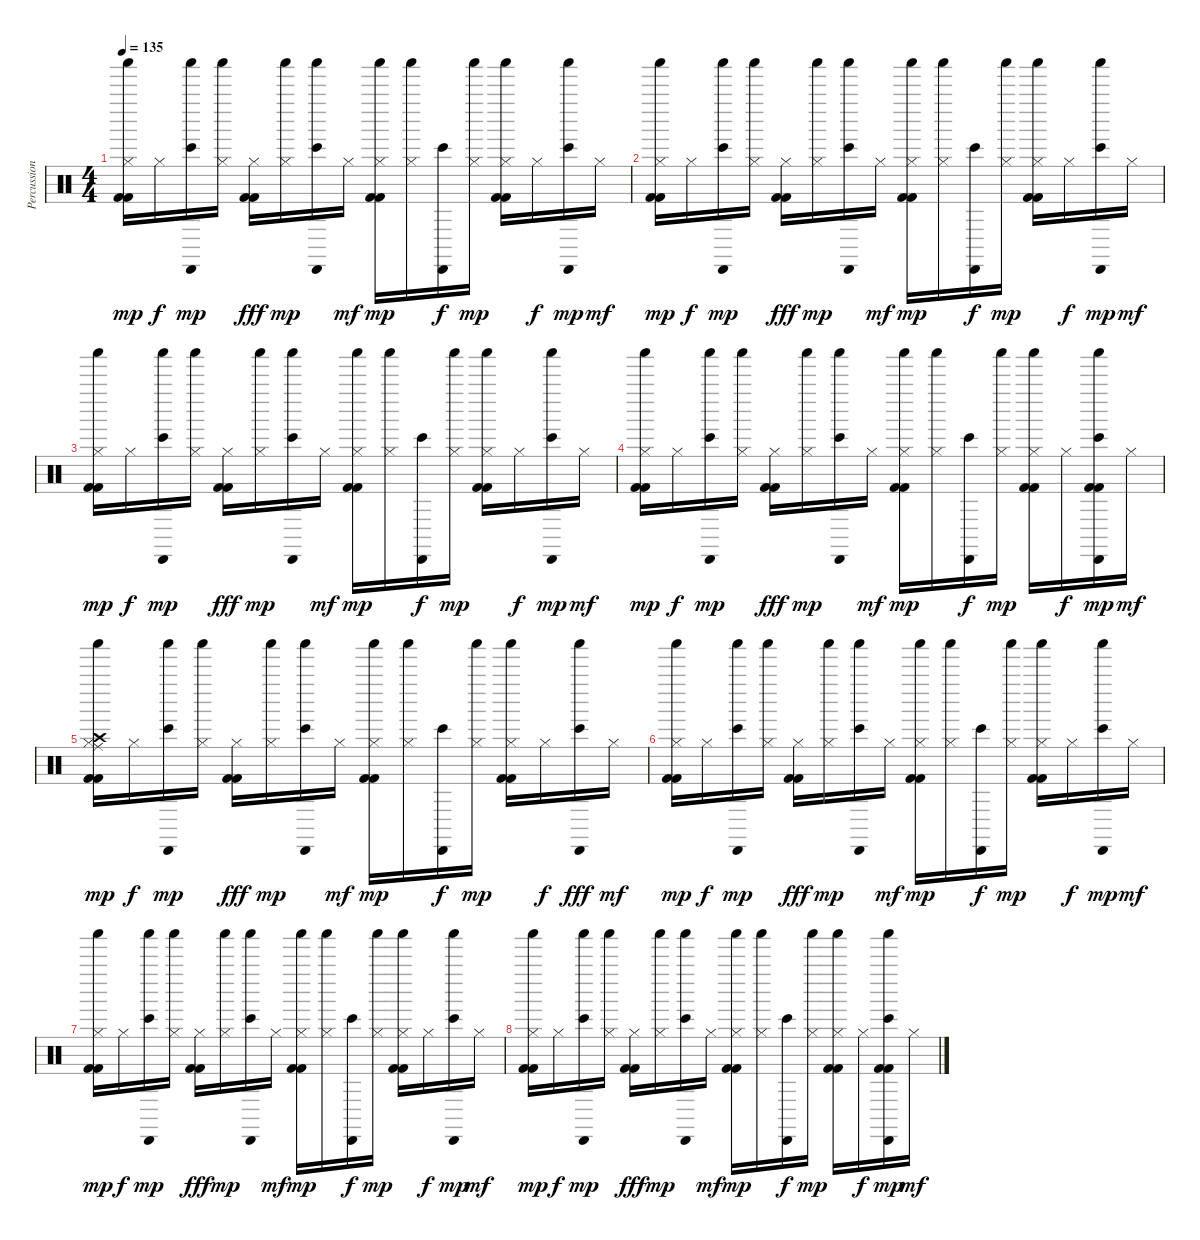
\track ("Percussion" "Percussion") {instrument percussion}
\staff {score}
\articulation defaults
\ts (4 4)
\tempo 135
\clef neutral
\ks c
("Hi-Hat (closed)" "Kick (hit) 2" "Kick (hit) 2" "Shaker (hit)").16{dy mp} "Hi-Hat (closed)".16{dy f} ("Cabasa (hit)" "Bongo High (hit)" "Shaker (hit)").16{dy mp} ("Hi-Hat (closed)" "Shaker (hit)").16 ("Hi-Hat (closed)" "Kick (hit) 2" "Kick (hit) 2").16{dy fff} ("Hi-Hat (closed)" "Shaker (hit)").16{dy mp} ("Cabasa (hit)" "Bongo High (hit)" "Shaker (hit)").16 "Hi-Hat (closed)".16{dy mf} ("Hi-Hat (closed)" "Kick (hit) 2" "Kick (hit) 2" "Shaker (hit)").16{dy mp} ("Hi-Hat (closed)" "Shaker (hit)").16 ("Cabasa (hit)" "Bongo High (hit)").16{dy f} ("Hi-Hat (closed)" "Shaker (hit)").16{dy mp} ("Hi-Hat (closed)" "Kick (hit) 2" "Kick (hit) 2" "Shaker (hit)").16 "Hi-Hat (closed)".16{dy f} ("Cabasa (hit)" "Bongo High (hit)" "Shaker (hit)").16{dy mp} "Hi-Hat (closed)".16{dy mf} |
("Hi-Hat (closed)" "Kick (hit) 2" "Kick (hit) 2" "Shaker (hit)").16{dy mp} "Hi-Hat (closed)".16{dy f} ("Cabasa (hit)" "Bongo High (hit)" "Shaker (hit)").16{dy mp} ("Hi-Hat (closed)" "Shaker (hit)").16 ("Hi-Hat (closed)" "Kick (hit) 2" "Kick (hit) 2").16{dy fff} ("Hi-Hat (closed)" "Shaker (hit)").16{dy mp} ("Cabasa (hit)" "Bongo High (hit)" "Shaker (hit)").16 "Hi-Hat (closed)".16{dy mf} ("Hi-Hat (closed)" "Kick (hit) 2" "Kick (hit) 2" "Shaker (hit)").16{dy mp} ("Hi-Hat (closed)" "Shaker (hit)").16 ("Cabasa (hit)" "Bongo High (hit)").16{dy f} ("Hi-Hat (closed)" "Shaker (hit)").16{dy mp} ("Hi-Hat (closed)" "Kick (hit) 2" "Kick (hit) 2" "Shaker (hit)").16 "Hi-Hat (closed)".16{dy f} ("Cabasa (hit)" "Bongo High (hit)" "Shaker (hit)").16{dy mp} "Hi-Hat (closed)".16{dy mf} |
("Hi-Hat (closed)" "Kick (hit) 2" "Kick (hit) 2" "Shaker (hit)").16{dy mp} "Hi-Hat (closed)".16{dy f} ("Cabasa (hit)" "Bongo High (hit)" "Shaker (hit)").16{dy mp} ("Hi-Hat (closed)" "Shaker (hit)").16 ("Hi-Hat (closed)" "Kick (hit) 2" "Kick (hit) 2").16{dy fff} ("Hi-Hat (closed)" "Shaker (hit)").16{dy mp} ("Cabasa (hit)" "Bongo High (hit)" "Shaker (hit)").16 "Hi-Hat (closed)".16{dy mf} ("Hi-Hat (closed)" "Kick (hit) 2" "Kick (hit) 2" "Shaker (hit)").16{dy mp} ("Hi-Hat (closed)" "Shaker (hit)").16 ("Cabasa (hit)" "Bongo High (hit)").16{dy f} ("Hi-Hat (closed)" "Shaker (hit)").16{dy mp} ("Hi-Hat (closed)" "Kick (hit) 2" "Kick (hit) 2" "Shaker (hit)").16 "Hi-Hat (closed)".16{dy f} ("Cabasa (hit)" "Bongo High (hit)" "Shaker (hit)").16{dy mp} "Hi-Hat (closed)".16{dy mf} |
("Hi-Hat (closed)" "Kick (hit) 2" "Kick (hit) 2" "Shaker (hit)").16{dy mp} "Hi-Hat (closed)".16{dy f} ("Cabasa (hit)" "Bongo High (hit)" "Shaker (hit)").16{dy mp} ("Hi-Hat (closed)" "Shaker (hit)").16 ("Hi-Hat (closed)" "Kick (hit) 2" "Kick (hit) 2").16{dy fff} ("Hi-Hat (closed)" "Shaker (hit)").16{dy mp} ("Cabasa (hit)" "Bongo High (hit)" "Shaker (hit)").16 "Hi-Hat (closed)".16{dy mf} ("Hi-Hat (closed)" "Kick (hit) 2" "Kick (hit) 2" "Shaker (hit)").16{dy mp} ("Hi-Hat (closed)" "Shaker (hit)").16 ("Cabasa (hit)" "Bongo High (hit)").16{dy f} ("Hi-Hat (closed)" "Shaker (hit)").16{dy mp} ("Hi-Hat (closed)" "Kick (hit) 2" "Kick (hit) 2" "Shaker (hit)").16 "Hi-Hat (closed)".16{dy f} ("Cabasa (hit)" "Bongo High (hit)" "Kick (hit) 2" "Kick (hit) 2" "Shaker (hit)").16{dy mp} "Hi-Hat (closed)".16{dy mf} |
("Ride (middle)" "Hi-Hat (closed)" "Crash high (hit)" "Kick (hit) 2" "Kick (hit) 2" "Shaker (hit)").16{dy mp} "Hi-Hat (closed)".16{dy f} ("Cabasa (hit)" "Bongo High (hit)" "Shaker (hit)").16{dy mp} ("Hi-Hat (closed)" "Shaker (hit)").16 ("Hi-Hat (closed)" "Kick (hit) 2" "Kick (hit) 2").16{dy fff} ("Hi-Hat (closed)" "Shaker (hit)").16{dy mp} ("Cabasa (hit)" "Bongo High (hit)" "Shaker (hit)").16 "Hi-Hat (closed)".16{dy mf} ("Hi-Hat (closed)" "Kick (hit) 2" "Kick (hit) 2" "Shaker (hit)").16{dy mp} ("Hi-Hat (closed)" "Shaker (hit)").16 ("Cabasa (hit)" "Bongo High (hit)").16{dy f} ("Hi-Hat (closed)" "Shaker (hit)").16{dy mp} ("Hi-Hat (closed)" "Kick (hit) 2" "Kick (hit) 2" "Shaker (hit)").16 "Hi-Hat (closed)".16{dy f} ("Cabasa (hit)" "Bongo High (hit)" "Shaker (hit)").16{dy fff} "Hi-Hat (closed)".16{dy mf} |
("Hi-Hat (closed)" "Kick (hit) 2" "Kick (hit) 2" "Shaker (hit)").16{dy mp} "Hi-Hat (closed)".16{dy f} ("Cabasa (hit)" "Bongo High (hit)" "Shaker (hit)").16{dy mp} ("Hi-Hat (closed)" "Shaker (hit)").16 ("Hi-Hat (closed)" "Kick (hit) 2" "Kick (hit) 2").16{dy fff} ("Hi-Hat (closed)" "Shaker (hit)").16{dy mp} ("Cabasa (hit)" "Bongo High (hit)" "Shaker (hit)").16 "Hi-Hat (closed)".16{dy mf} ("Hi-Hat (closed)" "Kick (hit) 2" "Kick (hit) 2" "Shaker (hit)").16{dy mp} ("Hi-Hat (closed)" "Shaker (hit)").16 ("Cabasa (hit)" "Bongo High (hit)").16{dy f} ("Hi-Hat (closed)" "Shaker (hit)").16{dy mp} ("Hi-Hat (closed)" "Kick (hit) 2" "Kick (hit) 2" "Shaker (hit)").16 "Hi-Hat (closed)".16{dy f} ("Cabasa (hit)" "Bongo High (hit)" "Shaker (hit)").16{dy mp} "Hi-Hat (closed)".16{dy mf} |
("Hi-Hat (closed)" "Kick (hit) 2" "Kick (hit) 2" "Shaker (hit)").16{dy mp} "Hi-Hat (closed)".16{dy f} ("Cabasa (hit)" "Bongo High (hit)" "Shaker (hit)").16{dy mp} ("Hi-Hat (closed)" "Shaker (hit)").16 ("Hi-Hat (closed)" "Kick (hit) 2" "Kick (hit) 2").16{dy fff} ("Hi-Hat (closed)" "Shaker (hit)").16{dy mp} ("Cabasa (hit)" "Bongo High (hit)" "Shaker (hit)").16 "Hi-Hat (closed)".16{dy mf} ("Hi-Hat (closed)" "Kick (hit) 2" "Kick (hit) 2" "Shaker (hit)").16{dy mp} ("Hi-Hat (closed)" "Shaker (hit)").16 ("Cabasa (hit)" "Bongo High (hit)").16{dy f} ("Hi-Hat (closed)" "Shaker (hit)").16{dy mp} ("Hi-Hat (closed)" "Kick (hit) 2" "Kick (hit) 2" "Shaker (hit)").16 "Hi-Hat (closed)".16{dy f} ("Cabasa (hit)" "Bongo High (hit)" "Shaker (hit)").16{dy mp} "Hi-Hat (closed)".16{dy mf} |
("Hi-Hat (closed)" "Kick (hit) 2" "Kick (hit) 2" "Shaker (hit)").16{dy mp} "Hi-Hat (closed)".16{dy f} ("Cabasa (hit)" "Bongo High (hit)" "Shaker (hit)").16{dy mp} ("Hi-Hat (closed)" "Shaker (hit)").16 ("Hi-Hat (closed)" "Kick (hit) 2" "Kick (hit) 2").16{dy fff} ("Hi-Hat (closed)" "Shaker (hit)").16{dy mp} ("Cabasa (hit)" "Bongo High (hit)" "Shaker (hit)").16 "Hi-Hat (closed)".16{dy mf} ("Hi-Hat (closed)" "Kick (hit) 2" "Kick (hit) 2" "Shaker (hit)").16{dy mp} ("Hi-Hat (closed)" "Shaker (hit)").16 ("Cabasa (hit)" "Bongo High (hit)").16{dy f} ("Hi-Hat (closed)" "Shaker (hit)").16{dy mp} ("Hi-Hat (closed)" "Kick (hit) 2" "Kick (hit) 2" "Shaker (hit)").16 "Hi-Hat (closed)".16{dy f} ("Cabasa (hit)" "Bongo High (hit)" "Kick (hit) 2" "Kick (hit) 2" "Shaker (hit)").16{dy mp} "Hi-Hat (closed)".16{dy mf}
